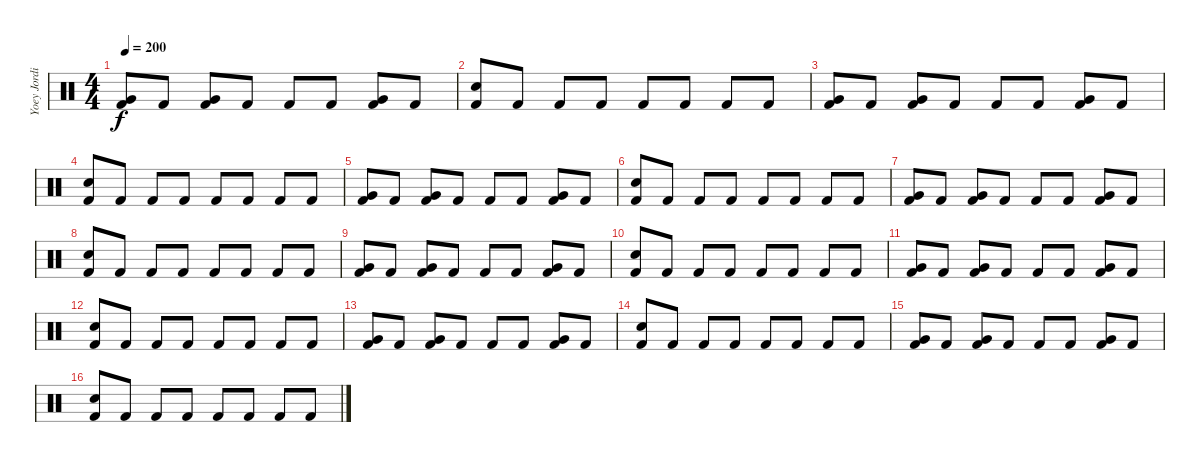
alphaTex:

\track ("Yoey Jordison" "Yoey Jordi") {instrument percussion}
\staff {score}
\articulation defaults
\ts (4 4)
\tempo 200
\clef neutral
\ks c
("Kick (hit) 2" "Very Low Tom (hit)").8{dy f} "Kick (hit) 2".8 ("Kick (hit) 2" "Very Low Tom (hit)").8 "Kick (hit) 2".8 "Kick (hit) 2".8 "Kick (hit) 2".8 ("Kick (hit) 2" "Very Low Tom (hit)").8 "Kick (hit) 2".8 |
("Kick (hit) 2" "Snare (hit) 2").8 "Kick (hit) 2".8 "Kick (hit) 2".8 "Kick (hit) 2".8 "Kick (hit) 2".8 "Kick (hit) 2".8 "Kick (hit) 2".8 "Kick (hit) 2".8 |
("Kick (hit) 2" "Very Low Tom (hit)").8 "Kick (hit) 2".8 ("Kick (hit) 2" "Very Low Tom (hit)").8 "Kick (hit) 2".8 "Kick (hit) 2".8 "Kick (hit) 2".8 ("Kick (hit) 2" "Very Low Tom (hit)").8 "Kick (hit) 2".8 |
("Kick (hit) 2" "Snare (hit) 2").8 "Kick (hit) 2".8 "Kick (hit) 2".8 "Kick (hit) 2".8 "Kick (hit) 2".8 "Kick (hit) 2".8 "Kick (hit) 2".8 "Kick (hit) 2".8 |
("Kick (hit) 2" "Very Low Tom (hit)").8 "Kick (hit) 2".8 ("Kick (hit) 2" "Very Low Tom (hit)").8 "Kick (hit) 2".8 "Kick (hit) 2".8 "Kick (hit) 2".8 ("Kick (hit) 2" "Very Low Tom (hit)").8 "Kick (hit) 2".8 |
("Kick (hit) 2" "Snare (hit) 2").8 "Kick (hit) 2".8 "Kick (hit) 2".8 "Kick (hit) 2".8 "Kick (hit) 2".8 "Kick (hit) 2".8 "Kick (hit) 2".8 "Kick (hit) 2".8 |
("Kick (hit) 2" "Very Low Tom (hit)").8 "Kick (hit) 2".8 ("Kick (hit) 2" "Very Low Tom (hit)").8 "Kick (hit) 2".8 "Kick (hit) 2".8 "Kick (hit) 2".8 ("Kick (hit) 2" "Very Low Tom (hit)").8 "Kick (hit) 2".8 |
("Kick (hit) 2" "Snare (hit) 2").8 "Kick (hit) 2".8 "Kick (hit) 2".8 "Kick (hit) 2".8 "Kick (hit) 2".8 "Kick (hit) 2".8 "Kick (hit) 2".8 "Kick (hit) 2".8 |
("Kick (hit) 2" "Very Low Tom (hit)").8 "Kick (hit) 2".8 ("Kick (hit) 2" "Very Low Tom (hit)").8 "Kick (hit) 2".8 "Kick (hit) 2".8 "Kick (hit) 2".8 ("Kick (hit) 2" "Very Low Tom (hit)").8 "Kick (hit) 2".8 |
("Kick (hit) 2" "Snare (hit) 2").8 "Kick (hit) 2".8 "Kick (hit) 2".8 "Kick (hit) 2".8 "Kick (hit) 2".8 "Kick (hit) 2".8 "Kick (hit) 2".8 "Kick (hit) 2".8 |
("Kick (hit) 2" "Very Low Tom (hit)").8 "Kick (hit) 2".8 ("Kick (hit) 2" "Very Low Tom (hit)").8 "Kick (hit) 2".8 "Kick (hit) 2".8 "Kick (hit) 2".8 ("Kick (hit) 2" "Very Low Tom (hit)").8 "Kick (hit) 2".8 |
("Kick (hit) 2" "Snare (hit) 2").8 "Kick (hit) 2".8 "Kick (hit) 2".8 "Kick (hit) 2".8 "Kick (hit) 2".8 "Kick (hit) 2".8 "Kick (hit) 2".8 "Kick (hit) 2".8 |
("Kick (hit) 2" "Very Low Tom (hit)").8 "Kick (hit) 2".8 ("Kick (hit) 2" "Very Low Tom (hit)").8 "Kick (hit) 2".8 "Kick (hit) 2".8 "Kick (hit) 2".8 ("Kick (hit) 2" "Very Low Tom (hit)").8 "Kick (hit) 2".8 |
("Kick (hit) 2" "Snare (hit) 2").8 "Kick (hit) 2".8 "Kick (hit) 2".8 "Kick (hit) 2".8 "Kick (hit) 2".8 "Kick (hit) 2".8 "Kick (hit) 2".8 "Kick (hit) 2".8 |
("Kick (hit) 2" "Very Low Tom (hit)").8 "Kick (hit) 2".8 ("Kick (hit) 2" "Very Low Tom (hit)").8 "Kick (hit) 2".8 "Kick (hit) 2".8 "Kick (hit) 2".8 ("Kick (hit) 2" "Very Low Tom (hit)").8 "Kick (hit) 2".8 |
("Kick (hit) 2" "Snare (hit) 2").8 "Kick (hit) 2".8 "Kick (hit) 2".8 "Kick (hit) 2".8 "Kick (hit) 2".8 "Kick (hit) 2".8 "Kick (hit) 2".8 "Kick (hit) 2".8
